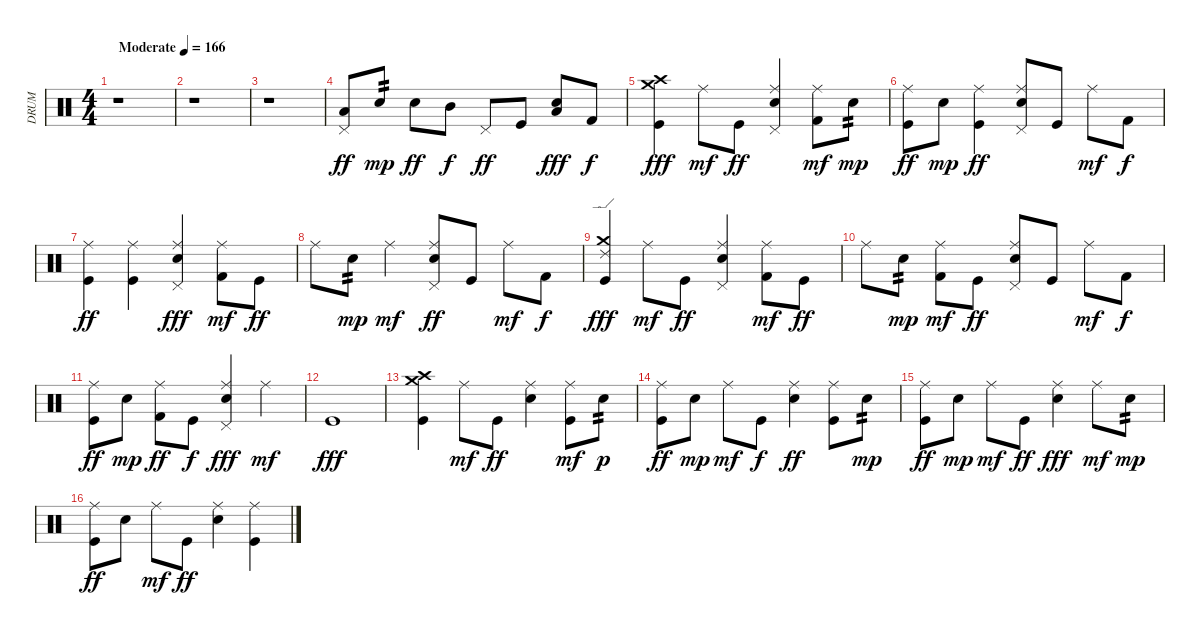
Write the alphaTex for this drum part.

\track ("DRUM" "DRUM") {instrument percussion}
\staff {score}
\articulation defaults
\ts (4 4)
\tempo (166 "Moderate")
\clef neutral
\ks c
r.1{dy ff} |
r.1 |
r.1 |
("Pedal Hi-Hat (hit)" "Low Tom (hit)").8 "Electric Snare (hit)".8{tp 2 dy mp} "Snare (hit) 2".8{dy ff} "Mid Tom (hit)".8{dy f} "Pedal Hi-Hat (hit)".8{dy ff} "Kick (hit)".8 ("Electric Snare (hit)" "Low Floor Tom (hit)").8{dy fff} "Kick (hit) 2".8{dy f} |
("Crash high (hit)" "Crash medium (hit)" "Kick (hit)").4{dy fff} "Ride (middle)".8{dy mf} "Kick (hit)".8{dy ff} ("Ride (middle)" "Pedal Hi-Hat (hit)" "Electric Snare (hit)").4 ("Ride (middle)" "Kick (hit) 2").8{dy mf} "Electric Snare (hit)".8{tp 2 dy mp} |
("Ride (middle)" "Kick (hit)").8{dy ff} "Electric Snare (hit)".8{dy mp} ("Ride (middle)" "Kick (hit)").4{dy ff} ("Ride (middle)" "Pedal Hi-Hat (hit)" "Electric Snare (hit)").8 "Kick (hit)".8 "Ride (middle)".8{dy mf} "Kick (hit) 2".8{dy f} |
("Ride (middle)" "Kick (hit)").4{dy ff} ("Ride (middle)" "Kick (hit)").4 ("Ride (middle)" "Pedal Hi-Hat (hit)" "Electric Snare (hit)").4{dy fff} ("Ride (middle)" "Kick (hit) 2").8{dy mf} "Kick (hit)".8{dy ff} |
"Ride (middle)".8 "Electric Snare (hit)".8{tp 2 dy mp} "Ride (middle)".4{dy mf} ("Ride (middle)" "Pedal Hi-Hat (hit)" "Electric Snare (hit)").8{dy ff} "Kick (hit)".8 "Ride (middle)".8{dy mf} "Kick (hit) 2".8{dy f} |
("Ride (edge) 2" "Crash medium (hit)" "Kick (hit)").4{dy fff} "Ride (middle)".8{dy mf} "Kick (hit)".8{dy ff} ("Ride (middle)" "Pedal Hi-Hat (hit)" "Electric Snare (hit)").4 ("Ride (middle)" "Kick (hit) 2").8{dy mf} "Kick (hit)".8{dy ff} |
"Ride (middle)".8 "Electric Snare (hit)".8{tp 2 dy mp} ("Ride (middle)" "Kick (hit) 2").8{dy mf} "Kick (hit)".8{dy ff} ("Ride (middle)" "Pedal Hi-Hat (hit)" "Electric Snare (hit)").8 "Kick (hit)".8 "Ride (middle)".8{dy mf} "Kick (hit) 2".8{dy f} |
("Ride (middle)" "Kick (hit)").8{dy ff} "Electric Snare (hit)".8{dy mp} ("Ride (middle)" "Kick (hit) 2").8{dy ff} "Kick (hit)".8{dy f} ("Ride (middle)" "Pedal Hi-Hat (hit)" "Electric Snare (hit)").4{dy fff} "Ride (middle)".4{dy mf} |
"Kick (hit)".1{dy fff} |
("Crash high (hit)" "Crash medium (hit)" "Kick (hit)").4 "Ride (middle)".8{dy mf} "Kick (hit)".8{dy ff} ("Ride (middle)" "Electric Snare (hit)").4 ("Ride (middle)" "Kick (hit)").8{dy mf} "Electric Snare (hit)".8{tp 2 dy p} |
("Ride (middle)" "Kick (hit)").8{dy ff} "Electric Snare (hit)".8{dy mp} "Ride (middle)".8{dy mf} "Kick (hit)".8{dy f} ("Ride (middle)" "Electric Snare (hit)").4{dy ff} ("Ride (middle)" "Kick (hit)").8 "Electric Snare (hit)".8{tp 2 dy mp} |
("Ride (middle)" "Kick (hit)").8{dy ff} "Electric Snare (hit)".8{dy mp} "Ride (middle)".8{dy mf} "Kick (hit)".8{dy ff} ("Ride (middle)" "Electric Snare (hit)").4{dy fff} "Ride (middle)".8{dy mf} "Electric Snare (hit)".8{tp 2 dy mp} |
("Ride (middle)" "Kick (hit)").8{dy ff} "Electric Snare (hit)".8 "Ride (middle)".8{dy mf} "Kick (hit)".8{dy ff} ("Ride (middle)" "Electric Snare (hit)").4 ("Ride (middle)" "Kick (hit)").4
